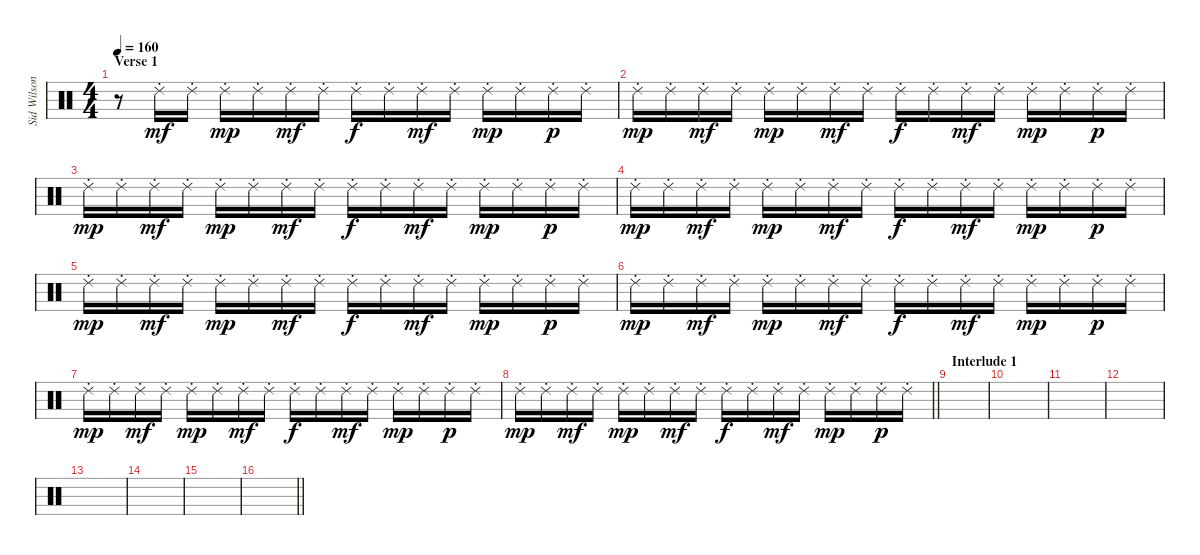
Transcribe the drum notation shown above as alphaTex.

\track ("Sid Wilson" "Sid Wilson") {instrument percussion}
\staff {score}
\articulation defaults
\ts (4 4)
\section ("" "Verse 1")
\tempo 160
\clef neutral
\ks c
r.8{dy mf} "Ride (choke) 2".16 "Ride (choke) 2".16 "Ride (choke) 2".16{dy mp} "Ride (choke) 2".16 "Ride (choke) 2".16{dy mf} "Ride (choke) 2".16 "Ride (choke) 2".16{dy f} "Ride (choke) 2".16 "Ride (choke) 2".16{dy mf} "Ride (choke) 2".16 "Ride (choke) 2".16{dy mp} "Ride (choke) 2".16 "Ride (choke) 2".16{dy p} "Ride (choke) 2".16 |
"Ride (choke) 2".16{dy mp} "Ride (choke) 2".16 "Ride (choke) 2".16{dy mf} "Ride (choke) 2".16 "Ride (choke) 2".16{dy mp} "Ride (choke) 2".16 "Ride (choke) 2".16{dy mf} "Ride (choke) 2".16 "Ride (choke) 2".16{dy f} "Ride (choke) 2".16 "Ride (choke) 2".16{dy mf} "Ride (choke) 2".16 "Ride (choke) 2".16{dy mp} "Ride (choke) 2".16 "Ride (choke) 2".16{dy p} "Ride (choke) 2".16 |
"Ride (choke) 2".16{dy mp} "Ride (choke) 2".16 "Ride (choke) 2".16{dy mf} "Ride (choke) 2".16 "Ride (choke) 2".16{dy mp} "Ride (choke) 2".16 "Ride (choke) 2".16{dy mf} "Ride (choke) 2".16 "Ride (choke) 2".16{dy f} "Ride (choke) 2".16 "Ride (choke) 2".16{dy mf} "Ride (choke) 2".16 "Ride (choke) 2".16{dy mp} "Ride (choke) 2".16 "Ride (choke) 2".16{dy p} "Ride (choke) 2".16 |
"Ride (choke) 2".16{dy mp} "Ride (choke) 2".16 "Ride (choke) 2".16{dy mf} "Ride (choke) 2".16 "Ride (choke) 2".16{dy mp} "Ride (choke) 2".16 "Ride (choke) 2".16{dy mf} "Ride (choke) 2".16 "Ride (choke) 2".16{dy f} "Ride (choke) 2".16 "Ride (choke) 2".16{dy mf} "Ride (choke) 2".16 "Ride (choke) 2".16{dy mp} "Ride (choke) 2".16 "Ride (choke) 2".16{dy p} "Ride (choke) 2".16 |
"Ride (choke) 2".16{dy mp} "Ride (choke) 2".16 "Ride (choke) 2".16{dy mf} "Ride (choke) 2".16 "Ride (choke) 2".16{dy mp} "Ride (choke) 2".16 "Ride (choke) 2".16{dy mf} "Ride (choke) 2".16 "Ride (choke) 2".16{dy f} "Ride (choke) 2".16 "Ride (choke) 2".16{dy mf} "Ride (choke) 2".16 "Ride (choke) 2".16{dy mp} "Ride (choke) 2".16 "Ride (choke) 2".16{dy p} "Ride (choke) 2".16 |
"Ride (choke) 2".16{dy mp} "Ride (choke) 2".16 "Ride (choke) 2".16{dy mf} "Ride (choke) 2".16 "Ride (choke) 2".16{dy mp} "Ride (choke) 2".16 "Ride (choke) 2".16{dy mf} "Ride (choke) 2".16 "Ride (choke) 2".16{dy f} "Ride (choke) 2".16 "Ride (choke) 2".16{dy mf} "Ride (choke) 2".16 "Ride (choke) 2".16{dy mp} "Ride (choke) 2".16 "Ride (choke) 2".16{dy p} "Ride (choke) 2".16 |
"Ride (choke) 2".16{dy mp} "Ride (choke) 2".16 "Ride (choke) 2".16{dy mf} "Ride (choke) 2".16 "Ride (choke) 2".16{dy mp} "Ride (choke) 2".16 "Ride (choke) 2".16{dy mf} "Ride (choke) 2".16 "Ride (choke) 2".16{dy f} "Ride (choke) 2".16 "Ride (choke) 2".16{dy mf} "Ride (choke) 2".16 "Ride (choke) 2".16{dy mp} "Ride (choke) 2".16 "Ride (choke) 2".16{dy p} "Ride (choke) 2".16 |
\barLineRight lightlight "Ride (choke) 2".16{dy mp} "Ride (choke) 2".16 "Ride (choke) 2".16{dy mf} "Ride (choke) 2".16 "Ride (choke) 2".16{dy mp} "Ride (choke) 2".16 "Ride (choke) 2".16{dy mf} "Ride (choke) 2".16 "Ride (choke) 2".16{dy f} "Ride (choke) 2".16 "Ride (choke) 2".16{dy mf} "Ride (choke) 2".16 "Ride (choke) 2".16{dy mp} "Ride (choke) 2".16 "Ride (choke) 2".16{dy p} "Ride (choke) 2".16
|
\section ("" "Interlude 1")
|
|
|
|
|
|
|
\barLineRight lightlight
